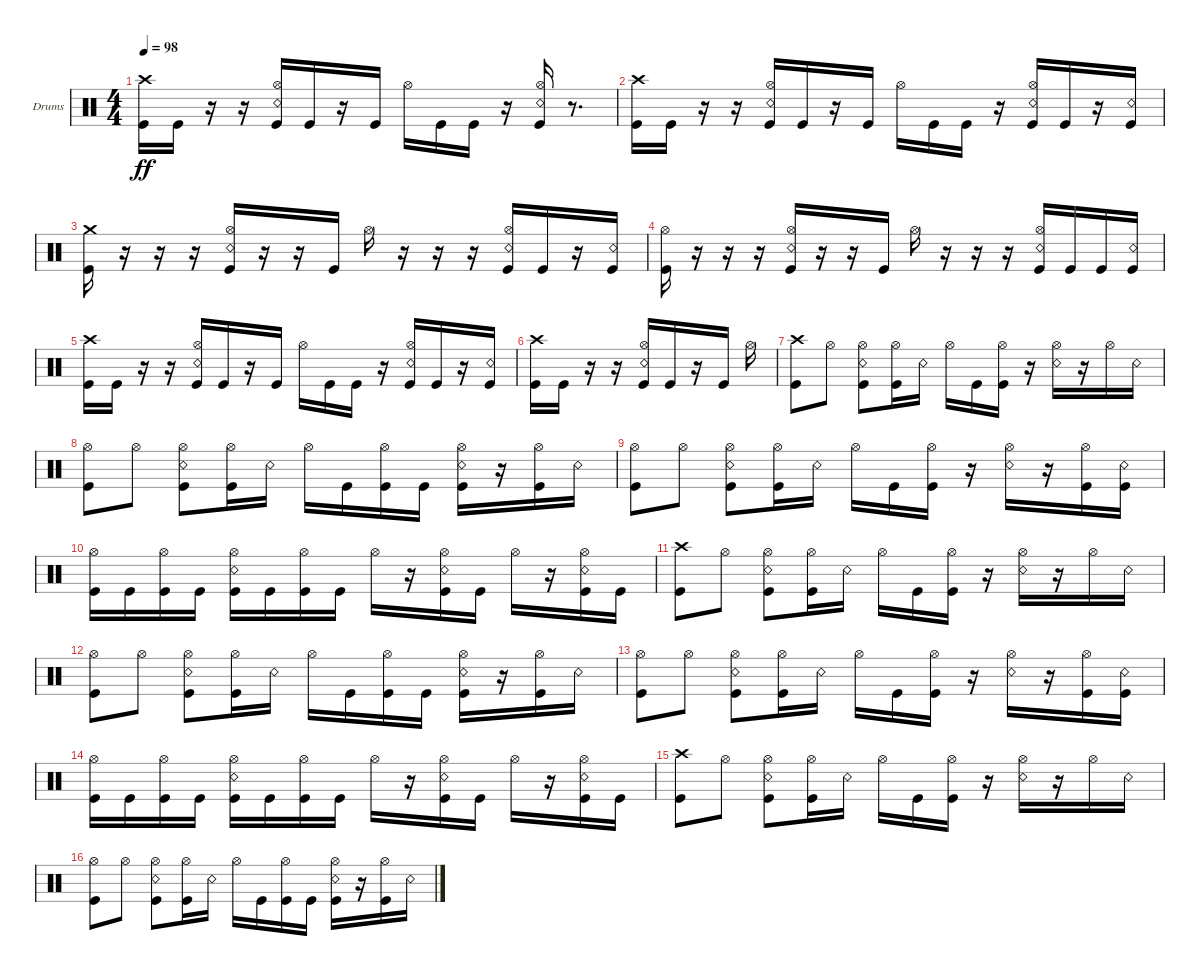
\bracketExtendMode groupsimilarinstruments
\firstSystemTrackNameOrientation horizontal
\otherSystemsTrackNameOrientation horizontal
\track ("Drumkit" "Drums") {instrument percussion}
\staff {score}
\articulation defaults
\ts (4 4)
\tempo 98
\clef neutral
\ks c
("Kick (hit)" "Crash high (hit)").16{dy ff} "Kick (hit)".16 r.16 r.16 ("Kick (hit)" "Hi-Hat (open)" "Snare (rim shot)").16 "Kick (hit)".16 r.16 "Kick (hit)".16 "Hi-Hat (open)".16 "Kick (hit)".16 "Kick (hit)".16 r.16 ("Kick (hit)" "Hi-Hat (open)" "Snare (rim shot)").16 r.8{d} |
("Kick (hit)" "Crash high (hit)").16 "Kick (hit)".16 r.16 r.16 ("Kick (hit)" "Hi-Hat (open)" "Snare (rim shot)").16 "Kick (hit)".16 r.16 "Kick (hit)".16 "Hi-Hat (open)".16 "Kick (hit)".16 "Kick (hit)".16 r.16 ("Kick (hit)" "Hi-Hat (open)" "Snare (rim shot)").16 "Kick (hit)".16 r.16 ("Kick (hit)" "Snare (rim shot)").16 |
("Crash medium (hit)" "Kick (hit)").16 r.16 r.16 r.16 ("Kick (hit)" "Hi-Hat (open)" "Snare (rim shot)").16 r.16 r.16 "Kick (hit)".16 "Hi-Hat (open)".16 r.16 r.16 r.16 ("Kick (hit)" "Hi-Hat (open)" "Snare (rim shot)").16 "Kick (hit)".16 r.16 ("Kick (hit)" "Snare (rim shot)").16 |
("Kick (hit)" "Hi-Hat (open)").16 r.16 r.16 r.16 ("Kick (hit)" "Hi-Hat (open)" "Snare (rim shot)").16 r.16 r.16 "Kick (hit)".16 "Hi-Hat (open)".16 r.16 r.16 r.16 ("Kick (hit)" "Hi-Hat (open)" "Snare (rim shot)").16 "Kick (hit)".16 "Kick (hit)".16 ("Kick (hit)" "Snare (rim shot)").16 |
("Kick (hit)" "Crash high (hit)").16 "Kick (hit)".16 r.16 r.16 ("Kick (hit)" "Hi-Hat (open)" "Snare (rim shot)").16 "Kick (hit)".16 r.16 "Kick (hit)".16 "Hi-Hat (open)".16 "Kick (hit)".16 "Kick (hit)".16 r.16 ("Kick (hit)" "Hi-Hat (open)" "Snare (rim shot)").16 "Kick (hit)".16 r.16 ("Kick (hit)" "Snare (rim shot)").16 |
("Kick (hit)" "Crash high (hit)").16 "Kick (hit)".16 r.16 r.16 ("Kick (hit)" "Hi-Hat (open)" "Snare (rim shot)").16 "Kick (hit)".16 r.16 "Kick (hit)".16 "Hi-Hat (open)".16 |
("Kick (hit)" "Crash high (hit)").8 "Hi-Hat (open)".8 ("Kick (hit)" "Hi-Hat (open)" "Snare (rim shot)").8 ("Kick (hit)" "Hi-Hat (open)").16 "Snare (rim shot)".16 "Hi-Hat (open)".16 "Kick (hit)".16 ("Kick (hit)" "Hi-Hat (open)").16 r.16 ("Snare (rim shot)" "Hi-Hat (open)").16 r.16 "Hi-Hat (open)".16 "Snare (rim shot)".16 |
("Kick (hit)" "Hi-Hat (open)").8 "Hi-Hat (open)".8 ("Kick (hit)" "Hi-Hat (open)" "Snare (rim shot)").8 ("Kick (hit)" "Hi-Hat (open)").16 "Snare (rim shot)".16 "Hi-Hat (open)".16 "Kick (hit)".16 ("Kick (hit)" "Hi-Hat (open)").16 "Kick (hit)".16 ("Snare (rim shot)" "Hi-Hat (open)" "Kick (hit)").16 r.16 ("Hi-Hat (open)" "Kick (hit)").16 "Snare (rim shot)".16 |
("Kick (hit)" "Hi-Hat (open)").8 "Hi-Hat (open)".8 ("Kick (hit)" "Hi-Hat (open)" "Snare (rim shot)").8 ("Kick (hit)" "Hi-Hat (open)").16 "Snare (rim shot)".16 "Hi-Hat (open)".16 "Kick (hit)".16 ("Kick (hit)" "Hi-Hat (open)").16 r.16 ("Snare (rim shot)" "Hi-Hat (open)").16 r.16 ("Hi-Hat (open)" "Kick (hit)").16 ("Snare (rim shot)" "Kick (hit)").16 |
("Kick (hit)" "Hi-Hat (open)").16 "Kick (hit)".16 ("Kick (hit)" "Hi-Hat (open)").16 "Kick (hit)".16 ("Kick (hit)" "Hi-Hat (open)" "Snare (rim shot)").16 "Kick (hit)".16 ("Kick (hit)" "Hi-Hat (open)").16 "Kick (hit)".16 "Hi-Hat (open)".16 r.16 ("Kick (hit)" "Hi-Hat (open)" "Snare (rim shot)").16 "Kick (hit)".16 "Hi-Hat (open)".16 r.16 ("Kick (hit)" "Hi-Hat (open)" "Snare (rim shot)").16 "Kick (hit)".16 |
("Kick (hit)" "Crash high (hit)").8 "Hi-Hat (open)".8 ("Kick (hit)" "Hi-Hat (open)" "Snare (rim shot)").8 ("Kick (hit)" "Hi-Hat (open)").16 "Snare (rim shot)".16 "Hi-Hat (open)".16 "Kick (hit)".16 ("Kick (hit)" "Hi-Hat (open)").16 r.16 ("Snare (rim shot)" "Hi-Hat (open)").16 r.16 "Hi-Hat (open)".16 "Snare (rim shot)".16 |
("Kick (hit)" "Hi-Hat (open)").8 "Hi-Hat (open)".8 ("Kick (hit)" "Hi-Hat (open)" "Snare (rim shot)").8 ("Kick (hit)" "Hi-Hat (open)").16 "Snare (rim shot)".16 "Hi-Hat (open)".16 "Kick (hit)".16 ("Kick (hit)" "Hi-Hat (open)").16 "Kick (hit)".16 ("Snare (rim shot)" "Hi-Hat (open)" "Kick (hit)").16 r.16 ("Hi-Hat (open)" "Kick (hit)").16 "Snare (rim shot)".16 |
("Kick (hit)" "Hi-Hat (open)").8 "Hi-Hat (open)".8 ("Kick (hit)" "Hi-Hat (open)" "Snare (rim shot)").8 ("Kick (hit)" "Hi-Hat (open)").16 "Snare (rim shot)".16 "Hi-Hat (open)".16 "Kick (hit)".16 ("Kick (hit)" "Hi-Hat (open)").16 r.16 ("Snare (rim shot)" "Hi-Hat (open)").16 r.16 ("Hi-Hat (open)" "Kick (hit)").16 ("Snare (rim shot)" "Kick (hit)").16 |
("Kick (hit)" "Hi-Hat (open)").16 "Kick (hit)".16 ("Kick (hit)" "Hi-Hat (open)").16 "Kick (hit)".16 ("Kick (hit)" "Hi-Hat (open)" "Snare (rim shot)").16 "Kick (hit)".16 ("Kick (hit)" "Hi-Hat (open)").16 "Kick (hit)".16 "Hi-Hat (open)".16 r.16 ("Kick (hit)" "Hi-Hat (open)" "Snare (rim shot)").16 "Kick (hit)".16 "Hi-Hat (open)".16 r.16 ("Kick (hit)" "Hi-Hat (open)" "Snare (rim shot)").16 "Kick (hit)".16 |
("Kick (hit)" "Crash high (hit)").8 "Hi-Hat (open)".8 ("Kick (hit)" "Hi-Hat (open)" "Snare (rim shot)").8 ("Kick (hit)" "Hi-Hat (open)").16 "Snare (rim shot)".16 "Hi-Hat (open)".16 "Kick (hit)".16 ("Kick (hit)" "Hi-Hat (open)").16 r.16 ("Snare (rim shot)" "Hi-Hat (open)").16 r.16 "Hi-Hat (open)".16 "Snare (rim shot)".16 |
("Kick (hit)" "Hi-Hat (open)").8 "Hi-Hat (open)".8 ("Kick (hit)" "Hi-Hat (open)" "Snare (rim shot)").8 ("Kick (hit)" "Hi-Hat (open)").16 "Snare (rim shot)".16 "Hi-Hat (open)".16 "Kick (hit)".16 ("Kick (hit)" "Hi-Hat (open)").16 "Kick (hit)".16 ("Snare (rim shot)" "Hi-Hat (open)" "Kick (hit)").16 r.16 ("Hi-Hat (open)" "Kick (hit)").16 "Snare (rim shot)".16
